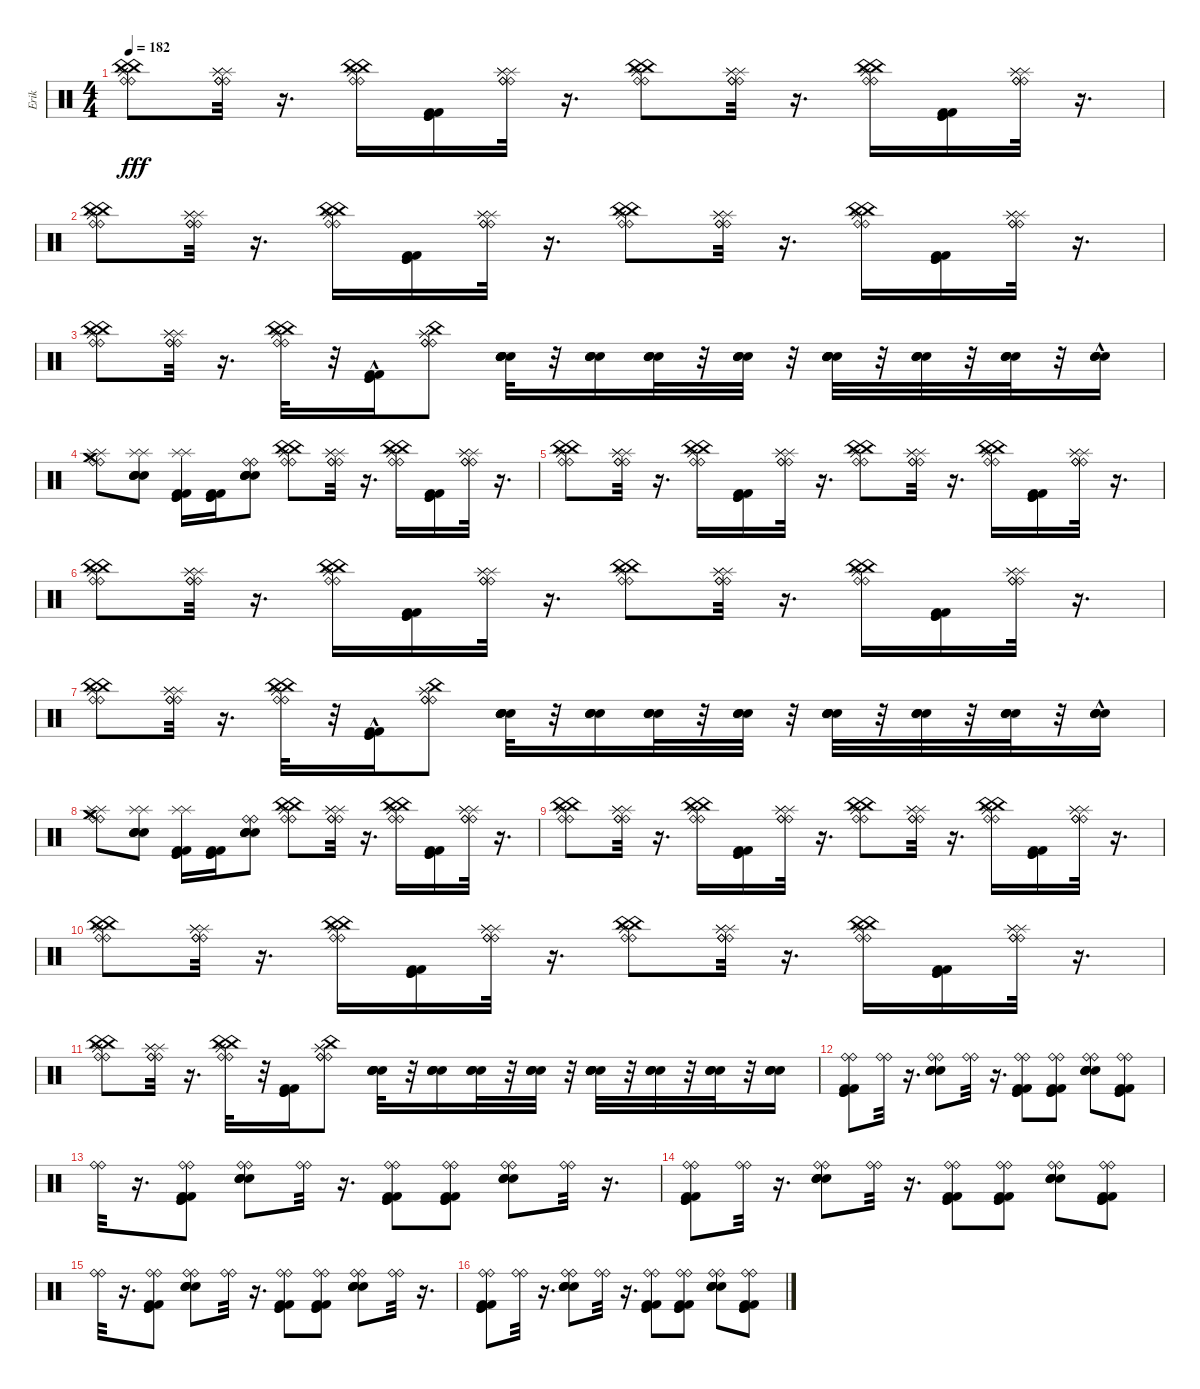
\track ("Erik" "Erik") {instrument percussion}
\staff {score}
\articulation defaults
\ts (4 4)
\tempo 182
\clef neutral
\ks c
("Splash (hit)" "Splash (hit)" "Ride (bell)" "Ride (bell)" "China (hit)" "China (hit)").8{dy fff} ("Ride (bell)" "Ride (bell)" "Ride (bell)" "Splash (hit)" "Splash (hit)" "Splash (hit)").32 r.16{d} ("Splash (hit)" "Splash (hit)" "Ride (bell)" "Ride (bell)" "China (hit)" "China (hit)").16 ("Kick (hit) 2" "Kick (hit) 2" "Kick (hit)" "Kick (hit)").16 ("Ride (bell)" "Ride (bell)" "Ride (bell)" "Splash (hit)" "Splash (hit)" "Splash (hit)").32 r.16{d} ("Splash (hit)" "Splash (hit)" "Ride (bell)" "Ride (bell)" "China (hit)" "China (hit)").8 ("Ride (bell)" "Ride (bell)" "Ride (bell)" "Splash (hit)" "Splash (hit)" "Splash (hit)").32 r.16{d} ("Splash (hit)" "Splash (hit)" "Ride (bell)" "Ride (bell)" "China (hit)" "China (hit)").16 ("Kick (hit) 2" "Kick (hit) 2" "Kick (hit)" "Kick (hit)").16 ("Ride (bell)" "Ride (bell)" "Ride (bell)" "Splash (hit)" "Splash (hit)" "Splash (hit)").32 r.16{d} |
("Splash (hit)" "Splash (hit)" "Ride (bell)" "Ride (bell)" "China (hit)" "China (hit)").8 ("Ride (bell)" "Ride (bell)" "Ride (bell)" "Splash (hit)" "Splash (hit)" "Splash (hit)").32 r.16{d} ("Splash (hit)" "Splash (hit)" "Ride (bell)" "Ride (bell)" "China (hit)" "China (hit)").16 ("Kick (hit) 2" "Kick (hit) 2" "Kick (hit)" "Kick (hit)").16 ("Ride (bell)" "Ride (bell)" "Ride (bell)" "Splash (hit)" "Splash (hit)" "Splash (hit)").32 r.16{d} ("Splash (hit)" "Splash (hit)" "Ride (bell)" "Ride (bell)" "China (hit)" "China (hit)").8 ("Ride (bell)" "Ride (bell)" "Ride (bell)" "Splash (hit)" "Splash (hit)" "Splash (hit)").32 r.16{d} ("Splash (hit)" "Splash (hit)" "Ride (bell)" "Ride (bell)" "China (hit)" "China (hit)").16 ("Kick (hit) 2" "Kick (hit) 2" "Kick (hit)" "Kick (hit)").16 ("Ride (bell)" "Ride (bell)" "Ride (bell)" "Splash (hit)" "Splash (hit)" "Splash (hit)").32 r.16{d} |
("Splash (hit)" "Splash (hit)" "Ride (bell)" "Ride (bell)" "China (hit)" "China (hit)").8 ("Ride (bell)" "Ride (bell)" "Ride (bell)" "Splash (hit)" "Splash (hit)" "Splash (hit)").32 r.16{d} ("Splash (hit)" "Splash (hit)" "Ride (bell)" "Ride (bell)" "China (hit)" "China (hit)").32 r.32 ("Kick (hit) 2"{hac} "Kick (hit) 2"{hac} "Kick (hit)"{hac} "Kick (hit)"{hac}).16 ("Ride (bell)" "Ride (bell)" "Ride (bell)" "Splash (hit)" "Splash (hit)" "China (hit)").8 ("Snare (hit) 2" "Electric Snare (hit)" "Electric Snare (hit)" "Snare (hit) 2" "Electric Snare (hit)").32 r.32 ("Electric Snare (hit)" "Electric Snare (hit)" "Snare (hit) 2" "Snare (hit) 2").16 ("Electric Snare (hit)" "Electric Snare (hit)" "Snare (hit) 2" "Snare (hit) 2").32 r.32 ("Electric Snare (hit)" "Electric Snare (hit)" "Snare (hit) 2" "Snare (hit) 2").32 r.32 ("Electric Snare (hit)" "Electric Snare (hit)" "Snare (hit) 2" "Electric Snare (hit)" "Electric Snare (hit)" "Snare (hit) 2").32 r.32 ("Electric Snare (hit)" "Electric Snare (hit)" "Snare (hit) 2" "Snare (hit) 2").32 r.32 ("Electric Snare (hit)" "Electric Snare (hit)" "Snare (hit) 2" "Snare (hit) 2").32 r.32 ("Electric Snare (hit)"{hac} "Electric Snare (hit)"{hac} "Snare (hit) 2"{hac} "Snare (hit) 2"{hac}).16 |
("Crash medium (hit)" "Crash medium (hit)" "Splash (hit)" "Splash (hit)" "Ride (bell)" "Ride (bell)").8 ("Electric Snare (hit)" "Electric Snare (hit)" "Snare (hit) 2" "Snare (hit) 2" "Splash (hit)" "Splash (hit)").8 ("Kick (hit) 2" "Kick (hit) 2" "Kick (hit)" "Kick (hit)" "Splash (hit)" "Splash (hit)").16 ("Kick (hit) 2" "Kick (hit) 2" "Kick (hit)" "Kick (hit)").16 ("Electric Snare (hit)" "Electric Snare (hit)" "Snare (hit) 2" "Snare (hit) 2" "Ride (bell)" "Ride (bell)").8 ("Splash (hit)" "Splash (hit)" "Ride (bell)" "Ride (bell)" "China (hit)" "China (hit)").8 ("Ride (bell)" "Ride (bell)" "Ride (bell)" "Splash (hit)" "Splash (hit)" "Splash (hit)").32 r.16{d} ("Splash (hit)" "Splash (hit)" "Ride (bell)" "Ride (bell)" "China (hit)" "China (hit)").16 ("Kick (hit) 2" "Kick (hit) 2" "Kick (hit)" "Kick (hit)").16 ("Ride (bell)" "Ride (bell)" "Ride (bell)" "Splash (hit)" "Splash (hit)" "Splash (hit)").32 r.16{d} |
("Splash (hit)" "Splash (hit)" "Ride (bell)" "Ride (bell)" "China (hit)" "China (hit)").8 ("Ride (bell)" "Ride (bell)" "Ride (bell)" "Splash (hit)" "Splash (hit)" "Splash (hit)").32 r.16{d} ("Splash (hit)" "Splash (hit)" "Ride (bell)" "Ride (bell)" "China (hit)" "China (hit)").16 ("Kick (hit) 2" "Kick (hit) 2" "Kick (hit)" "Kick (hit)").16 ("Ride (bell)" "Ride (bell)" "Ride (bell)" "Splash (hit)" "Splash (hit)" "Splash (hit)").32 r.16{d} ("Splash (hit)" "Splash (hit)" "Ride (bell)" "Ride (bell)" "China (hit)" "China (hit)").8 ("Ride (bell)" "Ride (bell)" "Ride (bell)" "Splash (hit)" "Splash (hit)" "Splash (hit)").32 r.16{d} ("Splash (hit)" "Splash (hit)" "Ride (bell)" "Ride (bell)" "China (hit)" "China (hit)").16 ("Kick (hit) 2" "Kick (hit) 2" "Kick (hit)" "Kick (hit)").16 ("Ride (bell)" "Ride (bell)" "Ride (bell)" "Splash (hit)" "Splash (hit)" "Splash (hit)").32 r.16{d} |
("Splash (hit)" "Splash (hit)" "Ride (bell)" "Ride (bell)" "China (hit)" "China (hit)").8 ("Ride (bell)" "Ride (bell)" "Ride (bell)" "Splash (hit)" "Splash (hit)" "Splash (hit)").32 r.16{d} ("Splash (hit)" "Splash (hit)" "Ride (bell)" "Ride (bell)" "China (hit)" "China (hit)").16 ("Kick (hit) 2" "Kick (hit) 2" "Kick (hit)" "Kick (hit)").16 ("Ride (bell)" "Ride (bell)" "Ride (bell)" "Splash (hit)" "Splash (hit)" "Splash (hit)").32 r.16{d} ("Splash (hit)" "Splash (hit)" "Ride (bell)" "Ride (bell)" "China (hit)" "China (hit)").8 ("Ride (bell)" "Ride (bell)" "Ride (bell)" "Splash (hit)" "Splash (hit)" "Splash (hit)").32 r.16{d} ("Splash (hit)" "Splash (hit)" "Ride (bell)" "Ride (bell)" "China (hit)" "China (hit)").16 ("Kick (hit) 2" "Kick (hit) 2" "Kick (hit)" "Kick (hit)").16 ("Ride (bell)" "Ride (bell)" "Ride (bell)" "Splash (hit)" "Splash (hit)" "Splash (hit)").32 r.16{d} |
("Splash (hit)" "Splash (hit)" "Ride (bell)" "Ride (bell)" "China (hit)" "China (hit)").8 ("Ride (bell)" "Ride (bell)" "Ride (bell)" "Splash (hit)" "Splash (hit)" "Splash (hit)").32 r.16{d} ("Splash (hit)" "Splash (hit)" "Ride (bell)" "Ride (bell)" "China (hit)" "China (hit)").32 r.32 ("Kick (hit) 2"{hac} "Kick (hit) 2"{hac} "Kick (hit)"{hac} "Kick (hit)"{hac}).16 ("Ride (bell)" "Ride (bell)" "Ride (bell)" "Splash (hit)" "Splash (hit)" "China (hit)").8 ("Snare (hit) 2" "Electric Snare (hit)" "Electric Snare (hit)" "Snare (hit) 2" "Electric Snare (hit)").32 r.32 ("Electric Snare (hit)" "Electric Snare (hit)" "Snare (hit) 2" "Snare (hit) 2").16 ("Electric Snare (hit)" "Electric Snare (hit)" "Snare (hit) 2" "Snare (hit) 2").32 r.32 ("Electric Snare (hit)" "Electric Snare (hit)" "Snare (hit) 2" "Snare (hit) 2").32 r.32 ("Electric Snare (hit)" "Electric Snare (hit)" "Snare (hit) 2" "Electric Snare (hit)" "Electric Snare (hit)" "Snare (hit) 2").32 r.32 ("Electric Snare (hit)" "Electric Snare (hit)" "Snare (hit) 2" "Snare (hit) 2").32 r.32 ("Electric Snare (hit)" "Electric Snare (hit)" "Snare (hit) 2" "Snare (hit) 2").32 r.32 ("Electric Snare (hit)"{hac} "Electric Snare (hit)"{hac} "Snare (hit) 2"{hac} "Snare (hit) 2"{hac}).16 |
("Crash medium (hit)" "Crash medium (hit)" "Splash (hit)" "Splash (hit)" "Ride (bell)" "Ride (bell)").8 ("Electric Snare (hit)" "Electric Snare (hit)" "Snare (hit) 2" "Snare (hit) 2" "Splash (hit)" "Splash (hit)").8 ("Kick (hit) 2" "Kick (hit) 2" "Kick (hit)" "Kick (hit)" "Splash (hit)" "Splash (hit)").16 ("Kick (hit) 2" "Kick (hit) 2" "Kick (hit)" "Kick (hit)").16 ("Electric Snare (hit)" "Electric Snare (hit)" "Snare (hit) 2" "Snare (hit) 2" "Ride (bell)" "Ride (bell)").8 ("Splash (hit)" "Splash (hit)" "Ride (bell)" "Ride (bell)" "China (hit)" "China (hit)").8 ("Ride (bell)" "Ride (bell)" "Ride (bell)" "Splash (hit)" "Splash (hit)" "Splash (hit)").32 r.16{d} ("Splash (hit)" "Splash (hit)" "Ride (bell)" "Ride (bell)" "China (hit)" "China (hit)").16 ("Kick (hit) 2" "Kick (hit) 2" "Kick (hit)" "Kick (hit)").16 ("Ride (bell)" "Ride (bell)" "Ride (bell)" "Splash (hit)" "Splash (hit)" "Splash (hit)").32 r.16{d} |
("Splash (hit)" "Splash (hit)" "Ride (bell)" "Ride (bell)" "China (hit)" "China (hit)").8 ("Ride (bell)" "Ride (bell)" "Ride (bell)" "Splash (hit)" "Splash (hit)" "Splash (hit)").32 r.16{d} ("Splash (hit)" "Splash (hit)" "Ride (bell)" "Ride (bell)" "China (hit)" "China (hit)").16 ("Kick (hit) 2" "Kick (hit) 2" "Kick (hit)" "Kick (hit)").16 ("Ride (bell)" "Ride (bell)" "Ride (bell)" "Splash (hit)" "Splash (hit)" "Splash (hit)").32 r.16{d} ("Splash (hit)" "Splash (hit)" "Ride (bell)" "Ride (bell)" "China (hit)" "China (hit)").8 ("Ride (bell)" "Ride (bell)" "Ride (bell)" "Splash (hit)" "Splash (hit)" "Splash (hit)").32 r.16{d} ("Splash (hit)" "Splash (hit)" "Ride (bell)" "Ride (bell)" "China (hit)" "China (hit)").16 ("Kick (hit) 2" "Kick (hit) 2" "Kick (hit)" "Kick (hit)").16 ("Ride (bell)" "Ride (bell)" "Ride (bell)" "Splash (hit)" "Splash (hit)" "Splash (hit)").32 r.16{d} |
("Splash (hit)" "Splash (hit)" "Ride (bell)" "Ride (bell)" "China (hit)" "China (hit)").8 ("Ride (bell)" "Ride (bell)" "Ride (bell)" "Splash (hit)" "Splash (hit)" "Splash (hit)").32 r.16{d} ("Splash (hit)" "Splash (hit)" "Ride (bell)" "Ride (bell)" "China (hit)" "China (hit)").16 ("Kick (hit) 2" "Kick (hit) 2" "Kick (hit)" "Kick (hit)").16 ("Ride (bell)" "Ride (bell)" "Ride (bell)" "Splash (hit)" "Splash (hit)" "Splash (hit)").32 r.16{d} ("Splash (hit)" "Splash (hit)" "Ride (bell)" "Ride (bell)" "China (hit)" "China (hit)").8 ("Ride (bell)" "Ride (bell)" "Ride (bell)" "Splash (hit)" "Splash (hit)" "Splash (hit)").32 r.16{d} ("Splash (hit)" "Splash (hit)" "Ride (bell)" "Ride (bell)" "China (hit)" "China (hit)").16 ("Kick (hit) 2" "Kick (hit) 2" "Kick (hit)" "Kick (hit)").16 ("Ride (bell)" "Ride (bell)" "Ride (bell)" "Splash (hit)" "Splash (hit)" "Splash (hit)").32 r.16{d} |
("Splash (hit)" "Splash (hit)" "Ride (bell)" "Ride (bell)" "China (hit)" "China (hit)").8 ("Ride (bell)" "Ride (bell)" "Ride (bell)" "Splash (hit)" "Splash (hit)" "Splash (hit)").32 r.16{d} ("Splash (hit)" "Splash (hit)" "Ride (bell)" "Ride (bell)" "China (hit)" "China (hit)").32 r.32 ("Kick (hit) 2" "Kick (hit) 2" "Kick (hit)" "Kick (hit)").16 ("Ride (bell)" "Ride (bell)" "Ride (bell)" "Splash (hit)" "Splash (hit)" "China (hit)").8 ("Snare (hit) 2" "Electric Snare (hit)" "Electric Snare (hit)" "Snare (hit) 2" "Electric Snare (hit)").32 r.32 ("Electric Snare (hit)" "Electric Snare (hit)" "Snare (hit) 2" "Snare (hit) 2").16 ("Electric Snare (hit)" "Electric Snare (hit)" "Snare (hit) 2" "Snare (hit) 2").32 r.32 ("Electric Snare (hit)" "Electric Snare (hit)" "Snare (hit) 2" "Snare (hit) 2").32 r.32 ("Electric Snare (hit)" "Electric Snare (hit)" "Snare (hit) 2" "Electric Snare (hit)" "Electric Snare (hit)" "Snare (hit) 2").32 r.32 ("Electric Snare (hit)" "Electric Snare (hit)" "Snare (hit) 2" "Snare (hit) 2").32 r.32 ("Electric Snare (hit)" "Electric Snare (hit)" "Snare (hit) 2" "Snare (hit) 2").32 r.32 ("Electric Snare (hit)" "Electric Snare (hit)" "Snare (hit) 2" "Snare (hit) 2").16 |
("Ride (bell)" "Ride (bell)" "Kick (hit) 2" "Kick (hit) 2" "Kick (hit)" "Kick (hit)").8 ("Ride (bell)" "Ride (bell)").32 r.16{d} ("Ride (bell)" "Ride (bell)" "Electric Snare (hit)" "Electric Snare (hit)" "Electric Snare (hit)" "Snare (hit) 2").8 ("Ride (bell)" "Ride (bell)").32 r.16{d} ("Ride (bell)" "Ride (bell)" "Kick (hit) 2" "Kick (hit) 2" "Kick (hit)" "Kick (hit)").8 ("Ride (bell)" "Ride (bell)" "Kick (hit) 2" "Kick (hit) 2" "Kick (hit)" "Kick (hit)").8 ("Ride (bell)" "Ride (bell)" "Electric Snare (hit)" "Electric Snare (hit)" "Snare (hit) 2" "Snare (hit) 2").8 ("Ride (bell)" "Ride (bell)" "Kick (hit) 2" "Kick (hit) 2" "Kick (hit)" "Kick (hit)").8 |
("Ride (bell)" "Ride (bell)").32 r.16{d} ("Ride (bell)" "Ride (bell)" "Kick (hit) 2" "Kick (hit) 2" "Kick (hit)" "Kick (hit)").8 ("Ride (bell)" "Ride (bell)" "Electric Snare (hit)" "Electric Snare (hit)" "Electric Snare (hit)" "Snare (hit) 2").8 ("Ride (bell)" "Ride (bell)").32 r.16{d} ("Ride (bell)" "Ride (bell)" "Kick (hit) 2" "Kick (hit) 2" "Kick (hit)" "Kick (hit)").8 ("Ride (bell)" "Ride (bell)" "Kick (hit) 2" "Kick (hit) 2" "Kick (hit)" "Kick (hit)").8 ("Ride (bell)" "Ride (bell)" "Electric Snare (hit)" "Electric Snare (hit)" "Snare (hit) 2" "Snare (hit) 2").8 ("Ride (bell)" "Ride (bell)").32 r.16{d} |
("Ride (bell)" "Ride (bell)" "Kick (hit) 2" "Kick (hit) 2" "Kick (hit)" "Kick (hit)").8 ("Ride (bell)" "Ride (bell)").32 r.16{d} ("Ride (bell)" "Ride (bell)" "Electric Snare (hit)" "Electric Snare (hit)" "Electric Snare (hit)" "Snare (hit) 2").8 ("Ride (bell)" "Ride (bell)").32 r.16{d} ("Ride (bell)" "Ride (bell)" "Kick (hit) 2" "Kick (hit) 2" "Kick (hit)" "Kick (hit)").8 ("Ride (bell)" "Ride (bell)" "Kick (hit) 2" "Kick (hit) 2" "Kick (hit)" "Kick (hit)").8 ("Ride (bell)" "Ride (bell)" "Electric Snare (hit)" "Electric Snare (hit)" "Snare (hit) 2" "Snare (hit) 2").8 ("Ride (bell)" "Ride (bell)" "Kick (hit) 2" "Kick (hit) 2" "Kick (hit)" "Kick (hit)").8 |
("Ride (bell)" "Ride (bell)").32 r.16{d} ("Ride (bell)" "Ride (bell)" "Kick (hit) 2" "Kick (hit) 2" "Kick (hit)" "Kick (hit)").8 ("Ride (bell)" "Ride (bell)" "Electric Snare (hit)" "Electric Snare (hit)" "Electric Snare (hit)" "Snare (hit) 2").8 ("Ride (bell)" "Ride (bell)").32 r.16{d} ("Ride (bell)" "Ride (bell)" "Kick (hit) 2" "Kick (hit) 2" "Kick (hit)" "Kick (hit)").8 ("Ride (bell)" "Ride (bell)" "Kick (hit) 2" "Kick (hit) 2" "Kick (hit)" "Kick (hit)").8 ("Ride (bell)" "Ride (bell)" "Electric Snare (hit)" "Electric Snare (hit)" "Snare (hit) 2" "Snare (hit) 2").8 ("Ride (bell)" "Ride (bell)").32 r.16{d} |
("Ride (bell)" "Ride (bell)" "Kick (hit) 2" "Kick (hit) 2" "Kick (hit)" "Kick (hit)").8 ("Ride (bell)" "Ride (bell)").32 r.16{d} ("Ride (bell)" "Ride (bell)" "Electric Snare (hit)" "Electric Snare (hit)" "Electric Snare (hit)" "Snare (hit) 2").8 ("Ride (bell)" "Ride (bell)").32 r.16{d} ("Ride (bell)" "Ride (bell)" "Kick (hit) 2" "Kick (hit) 2" "Kick (hit)" "Kick (hit)").8 ("Ride (bell)" "Ride (bell)" "Kick (hit) 2" "Kick (hit) 2" "Kick (hit)" "Kick (hit)").8 ("Ride (bell)" "Ride (bell)" "Electric Snare (hit)" "Electric Snare (hit)" "Snare (hit) 2" "Snare (hit) 2").8 ("Ride (bell)" "Ride (bell)" "Kick (hit) 2" "Kick (hit) 2" "Kick (hit)" "Kick (hit)").8
